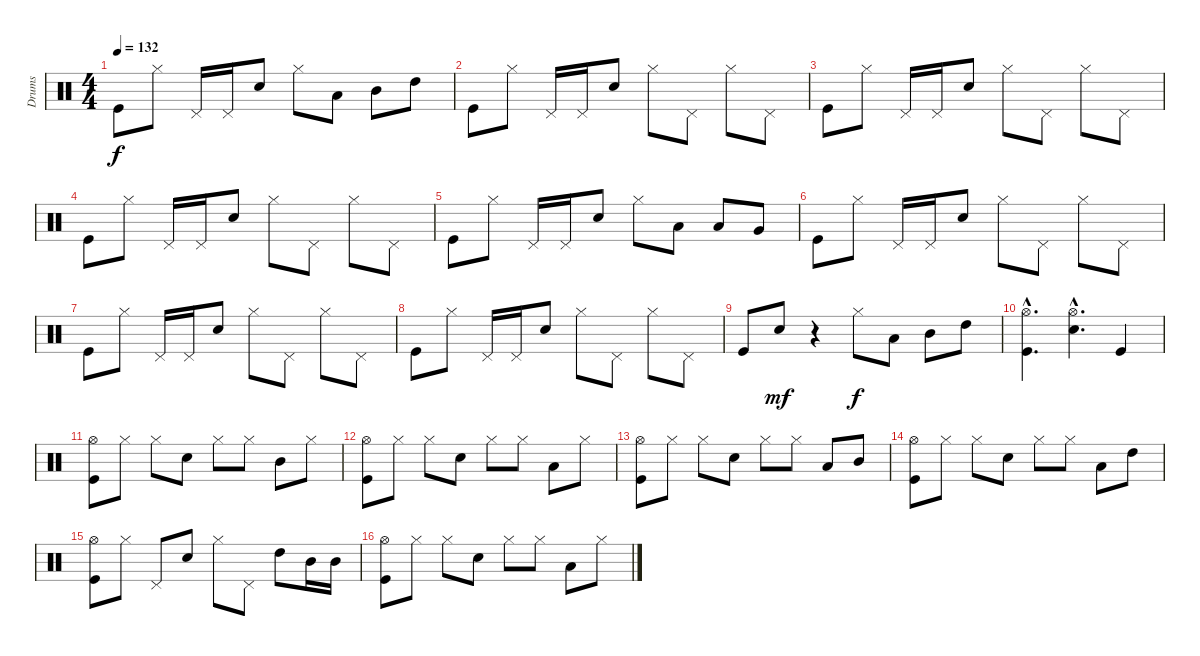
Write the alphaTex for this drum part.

\track ("Drums" "Drums") {instrument percussion}
\staff {score}
\articulation defaults
\ts (4 4)
\tempo 132
\clef neutral
\ks c "Kick (hit)".8{dy f} "Hi-Hat (closed)".8 "Pedal Hi-Hat (hit)".16 "Pedal Hi-Hat (hit)".16 "Snare (hit) 2".8 "Hi-Hat (closed)".8 "Low Tom (hit)".8 "Mid Tom (hit)".8 "High Tom (hit)".8
|
"Kick (hit)".8 "Hi-Hat (closed)".8 "Pedal Hi-Hat (hit)".16 "Pedal Hi-Hat (hit)".16 "Snare (hit) 2".8 "Hi-Hat (closed)".8 "Pedal Hi-Hat (hit)".8 "Hi-Hat (closed)".8 "Pedal Hi-Hat (hit)".8 |
"Kick (hit)".8 "Hi-Hat (closed)".8 "Pedal Hi-Hat (hit)".16 "Pedal Hi-Hat (hit)".16 "Snare (hit) 2".8 "Hi-Hat (closed)".8 "Pedal Hi-Hat (hit)".8 "Hi-Hat (closed)".8 "Pedal Hi-Hat (hit)".8 |
"Kick (hit)".8 "Hi-Hat (closed)".8 "Pedal Hi-Hat (hit)".16 "Pedal Hi-Hat (hit)".16 "Snare (hit) 2".8 "Hi-Hat (closed)".8 "Pedal Hi-Hat (hit)".8 "Hi-Hat (closed)".8 "Pedal Hi-Hat (hit)".8 |
"Kick (hit)".8 "Hi-Hat (closed)".8 "Pedal Hi-Hat (hit)".16 "Pedal Hi-Hat (hit)".16 "Snare (hit) 2".8 "Hi-Hat (closed)".8 "Low Tom (hit)".8 "Low Tom (hit)".8 "Very Low Tom (hit)".8 |
"Kick (hit)".8 "Hi-Hat (closed)".8 "Pedal Hi-Hat (hit)".16 "Pedal Hi-Hat (hit)".16 "Snare (hit) 2".8 "Hi-Hat (closed)".8 "Pedal Hi-Hat (hit)".8 "Hi-Hat (closed)".8 "Pedal Hi-Hat (hit)".8 |
"Kick (hit)".8 "Hi-Hat (closed)".8 "Pedal Hi-Hat (hit)".16 "Pedal Hi-Hat (hit)".16 "Snare (hit) 2".8 "Hi-Hat (closed)".8 "Pedal Hi-Hat (hit)".8 "Hi-Hat (closed)".8 "Pedal Hi-Hat (hit)".8 |
"Kick (hit)".8 "Hi-Hat (closed)".8 "Pedal Hi-Hat (hit)".16 "Pedal Hi-Hat (hit)".16 "Snare (hit) 2".8 "Hi-Hat (closed)".8 "Pedal Hi-Hat (hit)".8 "Hi-Hat (closed)".8 "Pedal Hi-Hat (hit)".8 |
"Kick (hit)".8 "Snare (hit) 2".8{dy mf} r.4 "Hi-Hat (closed)".8{dy f} "Low Tom (hit)".8 "Mid Tom (hit)".8 "High Tom (hit)".8 |
("Hi-Hat (open)"{hac} "Kick (hit)"{hac}).4{d} ("Hi-Hat (open)"{hac} "Snare (hit) 2"{hac}).4{d} "Kick (hit)".4 |
("Hi-Hat (open)" "Kick (hit)").8 "Hi-Hat (closed)".8 "Hi-Hat (closed)".8 "Snare (hit) 2".8 "Hi-Hat (closed)".8 "Hi-Hat (closed)".8 "Mid Tom (hit)".8 "Hi-Hat (closed)".8 |
("Hi-Hat (open)" "Kick (hit)").8 "Hi-Hat (closed)".8 "Hi-Hat (closed)".8 "Snare (hit) 2".8 "Hi-Hat (closed)".8 "Hi-Hat (closed)".8 "Low Tom (hit)".8 "Hi-Hat (closed)".8 |
("Hi-Hat (open)" "Kick (hit)").8 "Hi-Hat (closed)".8 "Hi-Hat (closed)".8 "Snare (hit) 2".8 "Hi-Hat (closed)".8 "Hi-Hat (closed)".8 "Low Tom (hit)".8 "Mid Tom (hit)".8 |
("Hi-Hat (open)" "Kick (hit)").8 "Hi-Hat (closed)".8 "Hi-Hat (closed)".8 "Snare (hit) 2".8 "Hi-Hat (closed)".8 "Hi-Hat (closed)".8 "Low Tom (hit)".8 "High Tom (hit)".8 |
("Hi-Hat (open)" "Kick (hit)").8 "Hi-Hat (closed)".8 "Pedal Hi-Hat (hit)".8 "Snare (hit) 2".8 "Hi-Hat (closed)".8 "Pedal Hi-Hat (hit)".8 "High Tom (hit)".8 "Mid Tom (hit)".16 "Mid Tom (hit)".16 |
("Hi-Hat (open)" "Kick (hit)").8 "Hi-Hat (closed)".8 "Hi-Hat (closed)".8 "Snare (hit) 2".8 "Hi-Hat (closed)".8 "Hi-Hat (closed)".8 "Low Tom (hit)".8 "Hi-Hat (closed)".8
